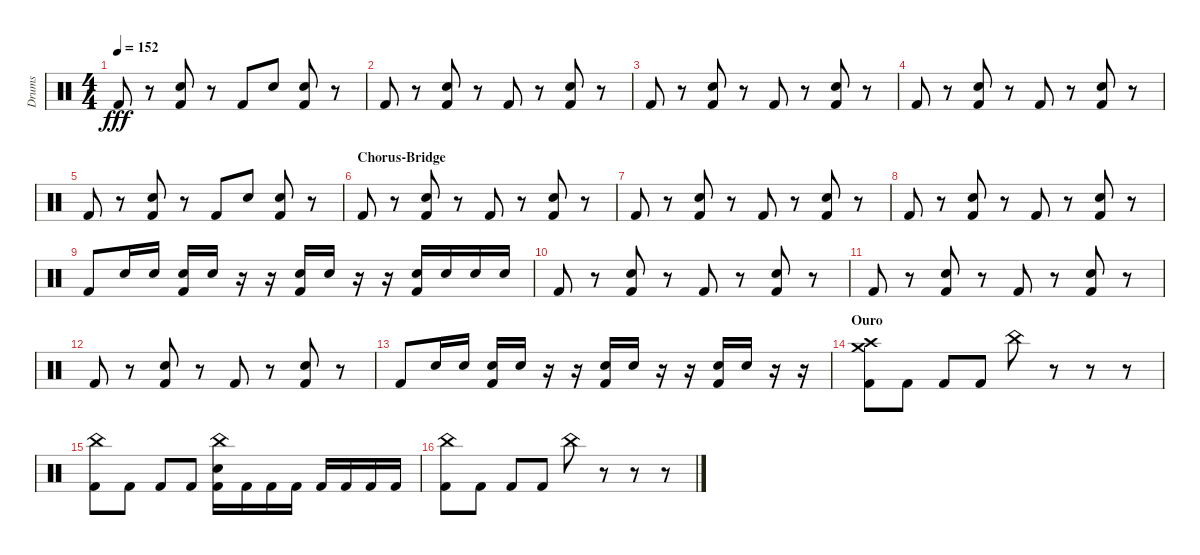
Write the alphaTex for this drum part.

\track ("Drums" "Drums") {instrument percussion}
\staff {score}
\articulation defaults
\ts (4 4)
\tempo 152
\clef neutral
\ks c "Kick (hit) 2".8{dy fff}
r.8 ("Snare (hit) 2" "Kick (hit) 2").8 r.8 "Kick (hit) 2".8 "Snare (hit) 2".8 ("Snare (hit) 2" "Kick (hit) 2").8 r.8 |
"Kick (hit) 2".8 r.8 ("Snare (hit) 2" "Kick (hit) 2").8 r.8 "Kick (hit) 2".8 r.8 ("Snare (hit) 2" "Kick (hit) 2").8 r.8 |
"Kick (hit) 2".8 r.8 ("Snare (hit) 2" "Kick (hit) 2").8 r.8 "Kick (hit) 2".8 r.8 ("Snare (hit) 2" "Kick (hit) 2").8 r.8 |
"Kick (hit) 2".8 r.8 ("Snare (hit) 2" "Kick (hit) 2").8 r.8 "Kick (hit) 2".8 r.8 ("Snare (hit) 2" "Kick (hit) 2").8 r.8 |
"Kick (hit) 2".8 r.8 ("Snare (hit) 2" "Kick (hit) 2").8 r.8 "Kick (hit) 2".8 "Snare (hit) 2".8 ("Snare (hit) 2" "Kick (hit) 2").8 r.8 |
\section ("" "Chorus-Bridge")
"Kick (hit) 2".8 r.8 ("Snare (hit) 2" "Kick (hit) 2").8 r.8 "Kick (hit) 2".8 r.8 ("Snare (hit) 2" "Kick (hit) 2").8 r.8 |
"Kick (hit) 2".8 r.8 ("Snare (hit) 2" "Kick (hit) 2").8 r.8 "Kick (hit) 2".8 r.8 ("Snare (hit) 2" "Kick (hit) 2").8 r.8 |
"Kick (hit) 2".8 r.8 ("Snare (hit) 2" "Kick (hit) 2").8 r.8 "Kick (hit) 2".8 r.8 ("Snare (hit) 2" "Kick (hit) 2").8 r.8 |
"Kick (hit) 2".8 "Snare (hit) 2".16 "Snare (hit) 2".16 ("Snare (hit) 2" "Kick (hit) 2").16 "Snare (hit) 2".16 r.16 r.16 ("Snare (hit) 2" "Kick (hit) 2").16 "Snare (hit) 2".16 r.16 r.16 ("Snare (hit) 2" "Kick (hit) 2").16 "Snare (hit) 2".16 "Snare (hit) 2".16 "Snare (hit) 2".16 |
"Kick (hit) 2".8 r.8 ("Snare (hit) 2" "Kick (hit) 2").8 r.8 "Kick (hit) 2".8 r.8 ("Snare (hit) 2" "Kick (hit) 2").8 r.8 |
"Kick (hit) 2".8 r.8 ("Snare (hit) 2" "Kick (hit) 2").8 r.8 "Kick (hit) 2".8 r.8 ("Snare (hit) 2" "Kick (hit) 2").8 r.8 |
"Kick (hit) 2".8 r.8 ("Snare (hit) 2" "Kick (hit) 2").8 r.8 "Kick (hit) 2".8 r.8 ("Snare (hit) 2" "Kick (hit) 2").8 r.8 |
"Kick (hit) 2".8 "Snare (hit) 2".16 "Snare (hit) 2".16 ("Snare (hit) 2" "Kick (hit) 2").16 "Snare (hit) 2".16 r.16 r.16 ("Snare (hit) 2" "Kick (hit) 2").16 "Snare (hit) 2".16 r.16 r.16 ("Snare (hit) 2" "Kick (hit) 2").16 "Snare (hit) 2".16 r.16 r.16 |
\section ("" "Ouro")
("Crash medium (hit)" "Crash high (hit)" "Kick (hit) 2").8 "Kick (hit) 2".8 "Kick (hit) 2".8 "Kick (hit) 2".8 "China (hit)".8 r.8 r.8 r.8 |
("China (hit)" "Kick (hit) 2").8 "Kick (hit) 2".8 "Kick (hit) 2".8 "Kick (hit) 2".8 ("China (hit)" "Snare (hit) 2" "Kick (hit) 2").16 "Kick (hit) 2".16 "Kick (hit) 2".16 "Kick (hit) 2".16 "Kick (hit) 2".16 "Kick (hit) 2".16 "Kick (hit) 2".16 "Kick (hit) 2".16 |
("China (hit)" "Kick (hit) 2").8 "Kick (hit) 2".8 "Kick (hit) 2".8 "Kick (hit) 2".8 "China (hit)".8 r.8 r.8 r.8
